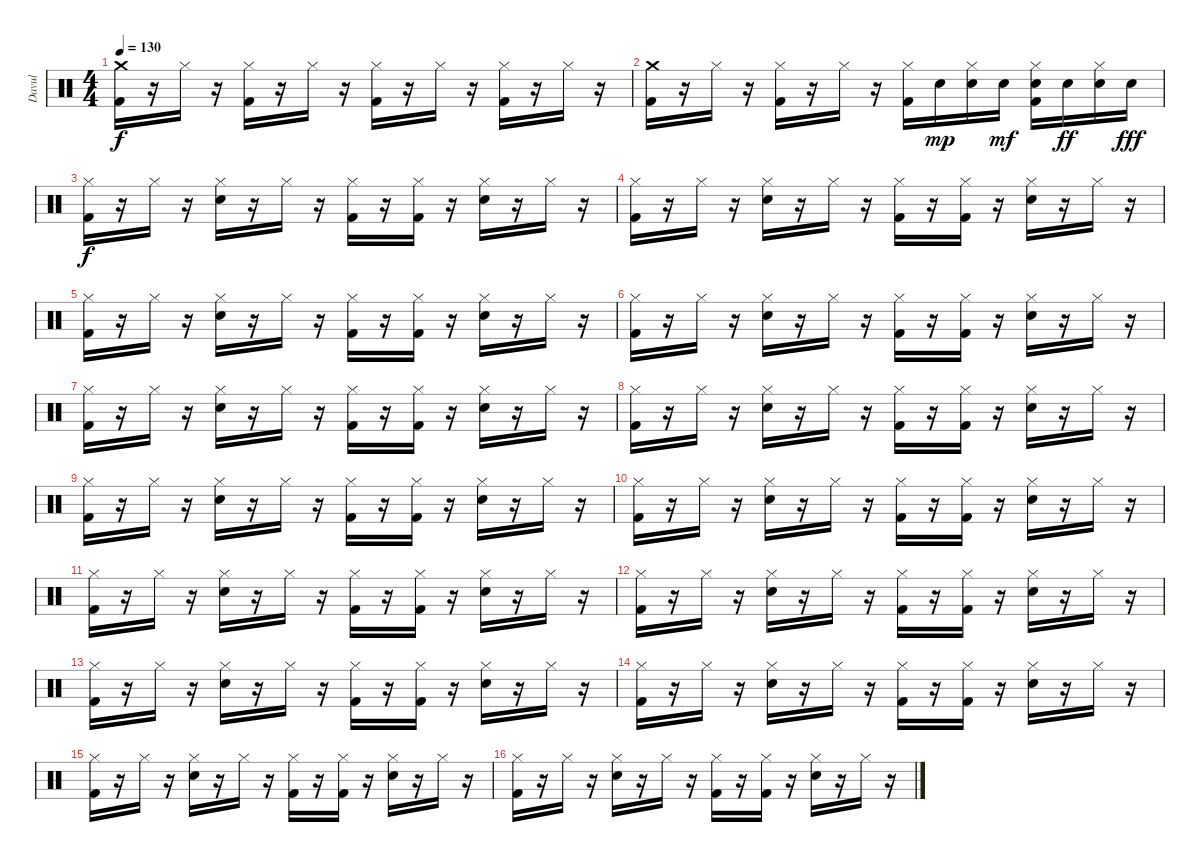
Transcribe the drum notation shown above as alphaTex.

\track ("Davul" "Davul") {instrument percussion}
\staff {score}
\articulation defaults
\ts (4 4)
\tempo 130
\clef neutral
\ks c
("Crash medium (hit)" "Kick (hit) 2").16{dy f} r.16 "Hi-Hat (closed)".16 r.16 ("Hi-Hat (closed)" "Kick (hit) 2").16 r.16 "Hi-Hat (closed)".16 r.16 ("Hi-Hat (closed)" "Kick (hit) 2").16 r.16 "Hi-Hat (closed)".16 r.16 ("Hi-Hat (closed)" "Kick (hit) 2").16 r.16 "Hi-Hat (closed)".16 r.16 |
("Crash medium (hit)" "Kick (hit) 2").16 r.16 "Hi-Hat (closed)".16 r.16 ("Hi-Hat (closed)" "Kick (hit) 2").16 r.16 "Hi-Hat (closed)".16 r.16 ("Hi-Hat (closed)" "Kick (hit) 2").16 "Snare (hit) 2".16{dy mp} ("Hi-Hat (closed)" "Snare (hit) 2").16 "Snare (hit) 2".16{dy mf} ("Hi-Hat (closed)" "Snare (hit) 2" "Kick (hit) 2").16 "Snare (hit) 2".16{dy ff} ("Hi-Hat (closed)" "Snare (hit) 2").16 "Snare (hit) 2".16{dy fff} |
("Hi-Hat (closed)" "Kick (hit) 2").16{dy f} r.16 "Hi-Hat (closed)".16 r.16 ("Hi-Hat (closed)" "Snare (hit) 2").16 r.16 "Hi-Hat (closed)".16 r.16 ("Hi-Hat (closed)" "Kick (hit) 2").16 r.16 ("Hi-Hat (closed)" "Kick (hit) 2").16 r.16 ("Hi-Hat (closed)" "Snare (hit) 2").16 r.16 "Hi-Hat (closed)".16 r.16 |
("Hi-Hat (closed)" "Kick (hit) 2").16 r.16 "Hi-Hat (closed)".16 r.16 ("Hi-Hat (closed)" "Snare (hit) 2").16 r.16 "Hi-Hat (closed)".16 r.16 ("Hi-Hat (closed)" "Kick (hit) 2").16 r.16 ("Hi-Hat (closed)" "Kick (hit) 2").16 r.16 ("Hi-Hat (closed)" "Snare (hit) 2").16 r.16 "Hi-Hat (closed)".16 r.16 |
("Hi-Hat (closed)" "Kick (hit) 2").16 r.16 "Hi-Hat (closed)".16 r.16 ("Hi-Hat (closed)" "Snare (hit) 2").16 r.16 "Hi-Hat (closed)".16 r.16 ("Hi-Hat (closed)" "Kick (hit) 2").16 r.16 ("Hi-Hat (closed)" "Kick (hit) 2").16 r.16 ("Hi-Hat (closed)" "Snare (hit) 2").16 r.16 "Hi-Hat (closed)".16 r.16 |
("Hi-Hat (closed)" "Kick (hit) 2").16 r.16 "Hi-Hat (closed)".16 r.16 ("Hi-Hat (closed)" "Snare (hit) 2").16 r.16 "Hi-Hat (closed)".16 r.16 ("Hi-Hat (closed)" "Kick (hit) 2").16 r.16 ("Hi-Hat (closed)" "Kick (hit) 2").16 r.16 ("Hi-Hat (closed)" "Snare (hit) 2").16 r.16 "Hi-Hat (closed)".16 r.16 |
("Hi-Hat (closed)" "Kick (hit) 2").16 r.16 "Hi-Hat (closed)".16 r.16 ("Hi-Hat (closed)" "Snare (hit) 2").16 r.16 "Hi-Hat (closed)".16 r.16 ("Hi-Hat (closed)" "Kick (hit) 2").16 r.16 ("Hi-Hat (closed)" "Kick (hit) 2").16 r.16 ("Hi-Hat (closed)" "Snare (hit) 2").16 r.16 "Hi-Hat (closed)".16 r.16 |
("Hi-Hat (closed)" "Kick (hit) 2").16 r.16 "Hi-Hat (closed)".16 r.16 ("Hi-Hat (closed)" "Snare (hit) 2").16 r.16 "Hi-Hat (closed)".16 r.16 ("Hi-Hat (closed)" "Kick (hit) 2").16 r.16 ("Hi-Hat (closed)" "Kick (hit) 2").16 r.16 ("Hi-Hat (closed)" "Snare (hit) 2").16 r.16 "Hi-Hat (closed)".16 r.16 |
("Hi-Hat (closed)" "Kick (hit) 2").16 r.16 "Hi-Hat (closed)".16 r.16 ("Hi-Hat (closed)" "Snare (hit) 2").16 r.16 "Hi-Hat (closed)".16 r.16 ("Hi-Hat (closed)" "Kick (hit) 2").16 r.16 ("Hi-Hat (closed)" "Kick (hit) 2").16 r.16 ("Hi-Hat (closed)" "Snare (hit) 2").16 r.16 "Hi-Hat (closed)".16 r.16 |
("Hi-Hat (closed)" "Kick (hit) 2").16 r.16 "Hi-Hat (closed)".16 r.16 ("Hi-Hat (closed)" "Snare (hit) 2").16 r.16 "Hi-Hat (closed)".16 r.16 ("Hi-Hat (closed)" "Kick (hit) 2").16 r.16 ("Hi-Hat (closed)" "Kick (hit) 2").16 r.16 ("Hi-Hat (closed)" "Snare (hit) 2").16 r.16 "Hi-Hat (closed)".16 r.16 |
("Hi-Hat (closed)" "Kick (hit) 2").16 r.16 "Hi-Hat (closed)".16 r.16 ("Hi-Hat (closed)" "Snare (hit) 2").16 r.16 "Hi-Hat (closed)".16 r.16 ("Hi-Hat (closed)" "Kick (hit) 2").16 r.16 ("Hi-Hat (closed)" "Kick (hit) 2").16 r.16 ("Hi-Hat (closed)" "Snare (hit) 2").16 r.16 "Hi-Hat (closed)".16 r.16 |
("Hi-Hat (closed)" "Kick (hit) 2").16 r.16 "Hi-Hat (closed)".16 r.16 ("Hi-Hat (closed)" "Snare (hit) 2").16 r.16 "Hi-Hat (closed)".16 r.16 ("Hi-Hat (closed)" "Kick (hit) 2").16 r.16 ("Hi-Hat (closed)" "Kick (hit) 2").16 r.16 ("Hi-Hat (closed)" "Snare (hit) 2").16 r.16 "Hi-Hat (closed)".16 r.16 |
("Hi-Hat (closed)" "Kick (hit) 2").16 r.16 "Hi-Hat (closed)".16 r.16 ("Hi-Hat (closed)" "Snare (hit) 2").16 r.16 "Hi-Hat (closed)".16 r.16 ("Hi-Hat (closed)" "Kick (hit) 2").16 r.16 ("Hi-Hat (closed)" "Kick (hit) 2").16 r.16 ("Hi-Hat (closed)" "Snare (hit) 2").16 r.16 "Hi-Hat (closed)".16 r.16 |
("Hi-Hat (closed)" "Kick (hit) 2").16 r.16 "Hi-Hat (closed)".16 r.16 ("Hi-Hat (closed)" "Snare (hit) 2").16 r.16 "Hi-Hat (closed)".16 r.16 ("Hi-Hat (closed)" "Kick (hit) 2").16 r.16 ("Hi-Hat (closed)" "Kick (hit) 2").16 r.16 ("Hi-Hat (closed)" "Snare (hit) 2").16 r.16 "Hi-Hat (closed)".16 r.16 |
("Hi-Hat (closed)" "Kick (hit) 2").16 r.16 "Hi-Hat (closed)".16 r.16 ("Hi-Hat (closed)" "Snare (hit) 2").16 r.16 "Hi-Hat (closed)".16 r.16 ("Hi-Hat (closed)" "Kick (hit) 2").16 r.16 ("Hi-Hat (closed)" "Kick (hit) 2").16 r.16 ("Hi-Hat (closed)" "Snare (hit) 2").16 r.16 "Hi-Hat (closed)".16 r.16 |
("Hi-Hat (closed)" "Kick (hit) 2").16 r.16 "Hi-Hat (closed)".16 r.16 ("Hi-Hat (closed)" "Snare (hit) 2").16 r.16 "Hi-Hat (closed)".16 r.16 ("Hi-Hat (closed)" "Kick (hit) 2").16 r.16 ("Hi-Hat (closed)" "Kick (hit) 2").16 r.16 ("Hi-Hat (closed)" "Snare (hit) 2").16 r.16 "Hi-Hat (closed)".16 r.16
